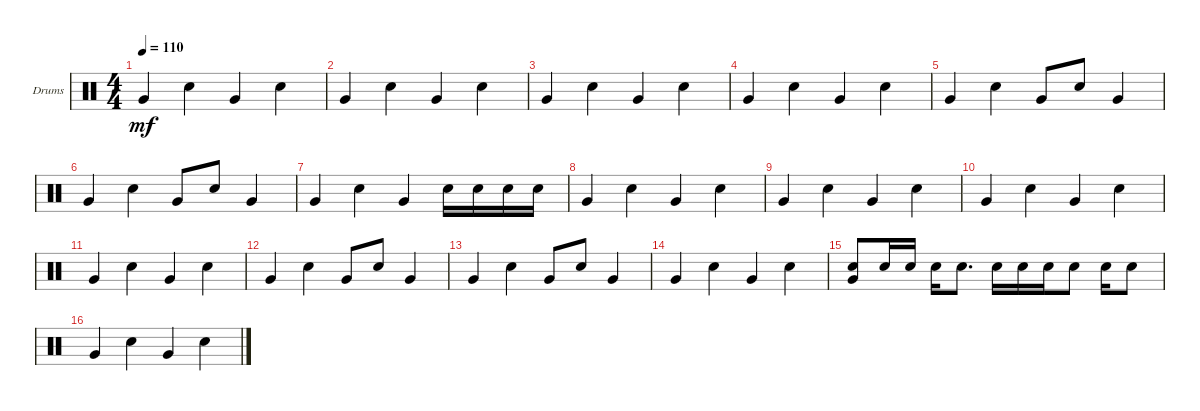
\defaultSystemsLayout 4
\bracketExtendMode groupsimilarinstruments
\firstSystemTrackNameOrientation horizontal
\otherSystemsTrackNameOrientation horizontal
\track ("Drumkit" "Drums") {instrument percussion}
\staff {score}
\articulation defaults
\ts (4 4)
\tempo 110
\clef neutral
\ks c "Very Low Tom (hit)".4{dy mf} "Snare (hit) 2".4 "Very Low Tom (hit)".4 "Snare (hit) 2".4
|
"Very Low Tom (hit)".4 "Snare (hit) 2".4 "Very Low Tom (hit)".4 "Snare (hit) 2".4 |
"Very Low Tom (hit)".4 "Snare (hit) 2".4 "Very Low Tom (hit)".4 "Snare (hit) 2".4 |
"Very Low Tom (hit)".4 "Snare (hit) 2".4 "Very Low Tom (hit)".4 "Snare (hit) 2".4 |
"Very Low Tom (hit)".4 "Snare (hit) 2".4 "Very Low Tom (hit)".8 "Snare (hit) 2".8 "Very Low Tom (hit)".4 |
"Very Low Tom (hit)".4 "Snare (hit) 2".4 "Very Low Tom (hit)".8 "Snare (hit) 2".8 "Very Low Tom (hit)".4 |
"Very Low Tom (hit)".4 "Snare (hit) 2".4 "Very Low Tom (hit)".4 "Snare (hit) 2".16 "Snare (hit) 2".16 "Snare (hit) 2".16 "Snare (hit) 2".16 |
"Very Low Tom (hit)".4 "Snare (hit) 2".4 "Very Low Tom (hit)".4 "Snare (hit) 2".4 |
"Very Low Tom (hit)".4 "Snare (hit) 2".4 "Very Low Tom (hit)".4 "Snare (hit) 2".4 |
"Very Low Tom (hit)".4 "Snare (hit) 2".4 "Very Low Tom (hit)".4 "Snare (hit) 2".4 |
"Very Low Tom (hit)".4 "Snare (hit) 2".4 "Very Low Tom (hit)".4 "Snare (hit) 2".4 |
"Very Low Tom (hit)".4 "Snare (hit) 2".4 "Very Low Tom (hit)".8 "Snare (hit) 2".8 "Very Low Tom (hit)".4 |
"Very Low Tom (hit)".4 "Snare (hit) 2".4 "Very Low Tom (hit)".8 "Snare (hit) 2".8 "Very Low Tom (hit)".4 |
"Very Low Tom (hit)".4 "Snare (hit) 2".4 "Very Low Tom (hit)".4 "Snare (hit) 2".4 |
("Very Low Tom (hit)" "Snare (hit) 2").8 "Snare (hit) 2".16 "Snare (hit) 2".16 "Snare (hit) 2".16 "Snare (hit) 2".8{d} "Snare (hit) 2".16 "Snare (hit) 2".16 "Snare (hit) 2".16 "Snare (hit) 2".8 "Snare (hit) 2".16 "Snare (hit) 2".8 |
"Very Low Tom (hit)".4 "Snare (hit) 2".4 "Very Low Tom (hit)".4 "Snare (hit) 2".4
